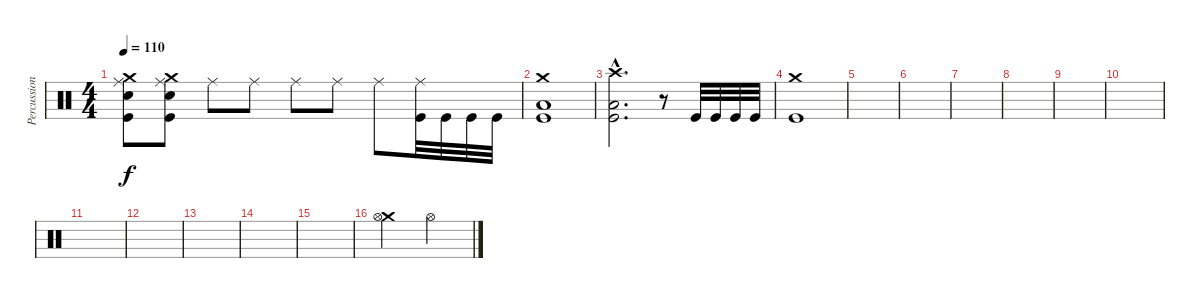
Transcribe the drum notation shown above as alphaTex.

\track ("Percussion" "Percussion") {instrument percussion}
\staff {score}
\articulation defaults
\ts (4 4)
\tempo 110
\clef neutral
\ks c
("Crash medium (hit)" "Ride (middle)" "Electric Snare (hit)" "Kick (hit)").8{dy f} ("Crash medium (hit)" "Ride (middle)" "Electric Snare (hit)" "Kick (hit)").8 "Ride (middle)".8 "Ride (middle)".8 "Ride (middle)".8 "Ride (middle)".8 "Ride (middle)".8 ("Ride (middle)" "Kick (hit)").32 "Kick (hit)".32 "Kick (hit)".32 "Kick (hit)".32 |
("Crash medium (hit)" "Low Floor Tom (hit)" "Kick (hit)").1 |
("Crash high (hit)"{hac} "Low Floor Tom (hit)"{hac} "Kick (hit)"{hac}).2{d} r.8 "Kick (hit)".32 "Kick (hit)".32 "Kick (hit)".32 "Kick (hit)".32 |
("Crash medium (hit)" "Kick (hit)").1 |
|
|
|
|
|
|
|
|
|
|
|
("Crash medium (hit)" "Hi-Hat (open)").2 "Hi-Hat (open)".2
